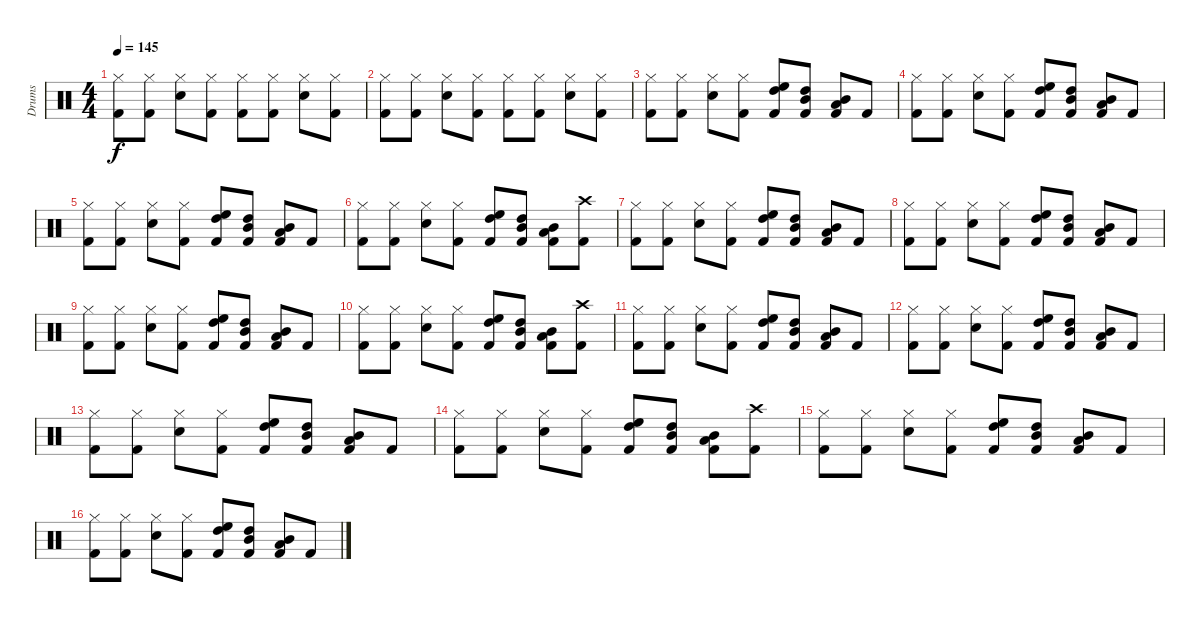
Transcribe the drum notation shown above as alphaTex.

\track ("Drums" "Drums") {instrument percussion}
\staff {score}
\articulation defaults
\ts (4 4)
\tempo 145
\clef neutral
\ks c
("Hi-Hat (closed)" "Kick (hit) 2").8{dy f} ("Hi-Hat (closed)" "Kick (hit) 2").8 ("Hi-Hat (closed)" "Snare (hit) 2").8 ("Hi-Hat (closed)" "Kick (hit) 2").8 ("Hi-Hat (closed)" "Kick (hit) 2").8 ("Hi-Hat (closed)" "Kick (hit) 2").8 ("Hi-Hat (closed)" "Snare (hit) 2").8 ("Hi-Hat (closed)" "Kick (hit) 2").8 |
("Hi-Hat (closed)" "Kick (hit) 2").8 ("Hi-Hat (closed)" "Kick (hit) 2").8 ("Hi-Hat (closed)" "Snare (hit) 2").8 ("Hi-Hat (closed)" "Kick (hit) 2").8 ("Hi-Hat (closed)" "Kick (hit) 2").8 ("Hi-Hat (closed)" "Kick (hit) 2").8 ("Hi-Hat (closed)" "Snare (hit) 2").8 ("Hi-Hat (closed)" "Kick (hit) 2").8 |
("Hi-Hat (closed)" "Kick (hit) 2").8 ("Hi-Hat (closed)" "Kick (hit) 2").8 ("Hi-Hat (closed)" "Snare (hit) 2").8 ("Hi-Hat (closed)" "Kick (hit) 2").8 ("High Floor Tom (hit)" "High Tom (hit)" "Kick (hit) 2").8 ("High Tom (hit)" "Mid Tom (hit)" "Kick (hit) 2").8 ("Mid Tom (hit)" "Low Tom (hit)" "Kick (hit) 2").8 "Kick (hit) 2".8 |
("Hi-Hat (closed)" "Kick (hit) 2").8 ("Hi-Hat (closed)" "Kick (hit) 2").8 ("Hi-Hat (closed)" "Snare (hit) 2").8 ("Hi-Hat (closed)" "Kick (hit) 2").8 ("High Floor Tom (hit)" "High Tom (hit)" "Kick (hit) 2").8 ("High Tom (hit)" "Mid Tom (hit)" "Kick (hit) 2").8 ("Mid Tom (hit)" "Low Tom (hit)" "Kick (hit) 2").8 "Kick (hit) 2".8 |
("Hi-Hat (closed)" "Kick (hit) 2").8 ("Hi-Hat (closed)" "Kick (hit) 2").8 ("Hi-Hat (closed)" "Snare (hit) 2").8 ("Hi-Hat (closed)" "Kick (hit) 2").8 ("High Floor Tom (hit)" "High Tom (hit)" "Kick (hit) 2").8 ("High Tom (hit)" "Mid Tom (hit)" "Kick (hit) 2").8 ("Mid Tom (hit)" "Low Tom (hit)" "Kick (hit) 2").8 "Kick (hit) 2".8 |
("Hi-Hat (closed)" "Kick (hit) 2").8 ("Hi-Hat (closed)" "Kick (hit) 2").8 ("Hi-Hat (closed)" "Snare (hit) 2").8 ("Hi-Hat (closed)" "Kick (hit) 2").8 ("High Floor Tom (hit)" "High Tom (hit)" "Kick (hit) 2").8 ("High Tom (hit)" "Mid Tom (hit)" "Kick (hit) 2").8 ("Mid Tom (hit)" "Low Tom (hit)" "Kick (hit) 2").8 ("Crash high (hit)" "Kick (hit) 2").8 |
("Hi-Hat (closed)" "Kick (hit) 2").8 ("Hi-Hat (closed)" "Kick (hit) 2").8 ("Hi-Hat (closed)" "Snare (hit) 2").8 ("Hi-Hat (closed)" "Kick (hit) 2").8 ("High Floor Tom (hit)" "High Tom (hit)" "Kick (hit) 2").8 ("High Tom (hit)" "Mid Tom (hit)" "Kick (hit) 2").8 ("Mid Tom (hit)" "Low Tom (hit)" "Kick (hit) 2").8 "Kick (hit) 2".8 |
("Hi-Hat (closed)" "Kick (hit) 2").8 ("Hi-Hat (closed)" "Kick (hit) 2").8 ("Hi-Hat (closed)" "Snare (hit) 2").8 ("Hi-Hat (closed)" "Kick (hit) 2").8 ("High Floor Tom (hit)" "High Tom (hit)" "Kick (hit) 2").8 ("High Tom (hit)" "Mid Tom (hit)" "Kick (hit) 2").8 ("Mid Tom (hit)" "Low Tom (hit)" "Kick (hit) 2").8 "Kick (hit) 2".8 |
("Hi-Hat (closed)" "Kick (hit) 2").8 ("Hi-Hat (closed)" "Kick (hit) 2").8 ("Hi-Hat (closed)" "Snare (hit) 2").8 ("Hi-Hat (closed)" "Kick (hit) 2").8 ("High Floor Tom (hit)" "High Tom (hit)" "Kick (hit) 2").8 ("High Tom (hit)" "Mid Tom (hit)" "Kick (hit) 2").8 ("Mid Tom (hit)" "Low Tom (hit)" "Kick (hit) 2").8 "Kick (hit) 2".8 |
("Hi-Hat (closed)" "Kick (hit) 2").8 ("Hi-Hat (closed)" "Kick (hit) 2").8 ("Hi-Hat (closed)" "Snare (hit) 2").8 ("Hi-Hat (closed)" "Kick (hit) 2").8 ("High Floor Tom (hit)" "High Tom (hit)" "Kick (hit) 2").8 ("High Tom (hit)" "Mid Tom (hit)" "Kick (hit) 2").8 ("Mid Tom (hit)" "Low Tom (hit)" "Kick (hit) 2").8 ("Crash high (hit)" "Kick (hit) 2").8 |
("Hi-Hat (closed)" "Kick (hit) 2").8 ("Hi-Hat (closed)" "Kick (hit) 2").8 ("Hi-Hat (closed)" "Snare (hit) 2").8 ("Hi-Hat (closed)" "Kick (hit) 2").8 ("High Floor Tom (hit)" "High Tom (hit)" "Kick (hit) 2").8 ("High Tom (hit)" "Mid Tom (hit)" "Kick (hit) 2").8 ("Mid Tom (hit)" "Low Tom (hit)" "Kick (hit) 2").8 "Kick (hit) 2".8 |
("Hi-Hat (closed)" "Kick (hit) 2").8 ("Hi-Hat (closed)" "Kick (hit) 2").8 ("Hi-Hat (closed)" "Snare (hit) 2").8 ("Hi-Hat (closed)" "Kick (hit) 2").8 ("High Floor Tom (hit)" "High Tom (hit)" "Kick (hit) 2").8 ("High Tom (hit)" "Mid Tom (hit)" "Kick (hit) 2").8 ("Mid Tom (hit)" "Low Tom (hit)" "Kick (hit) 2").8 "Kick (hit) 2".8 |
("Hi-Hat (closed)" "Kick (hit) 2").8 ("Hi-Hat (closed)" "Kick (hit) 2").8 ("Hi-Hat (closed)" "Snare (hit) 2").8 ("Hi-Hat (closed)" "Kick (hit) 2").8 ("High Floor Tom (hit)" "High Tom (hit)" "Kick (hit) 2").8 ("High Tom (hit)" "Mid Tom (hit)" "Kick (hit) 2").8 ("Mid Tom (hit)" "Low Tom (hit)" "Kick (hit) 2").8 "Kick (hit) 2".8 |
("Hi-Hat (closed)" "Kick (hit) 2").8 ("Hi-Hat (closed)" "Kick (hit) 2").8 ("Hi-Hat (closed)" "Snare (hit) 2").8 ("Hi-Hat (closed)" "Kick (hit) 2").8 ("High Floor Tom (hit)" "High Tom (hit)" "Kick (hit) 2").8 ("High Tom (hit)" "Mid Tom (hit)" "Kick (hit) 2").8 ("Mid Tom (hit)" "Low Tom (hit)" "Kick (hit) 2").8 ("Crash high (hit)" "Kick (hit) 2").8 |
("Hi-Hat (closed)" "Kick (hit) 2").8 ("Hi-Hat (closed)" "Kick (hit) 2").8 ("Hi-Hat (closed)" "Snare (hit) 2").8 ("Hi-Hat (closed)" "Kick (hit) 2").8 ("High Floor Tom (hit)" "High Tom (hit)" "Kick (hit) 2").8 ("High Tom (hit)" "Mid Tom (hit)" "Kick (hit) 2").8 ("Mid Tom (hit)" "Low Tom (hit)" "Kick (hit) 2").8 "Kick (hit) 2".8 |
("Hi-Hat (closed)" "Kick (hit) 2").8 ("Hi-Hat (closed)" "Kick (hit) 2").8 ("Hi-Hat (closed)" "Snare (hit) 2").8 ("Hi-Hat (closed)" "Kick (hit) 2").8 ("High Floor Tom (hit)" "High Tom (hit)" "Kick (hit) 2").8 ("High Tom (hit)" "Mid Tom (hit)" "Kick (hit) 2").8 ("Mid Tom (hit)" "Low Tom (hit)" "Kick (hit) 2").8 "Kick (hit) 2".8
